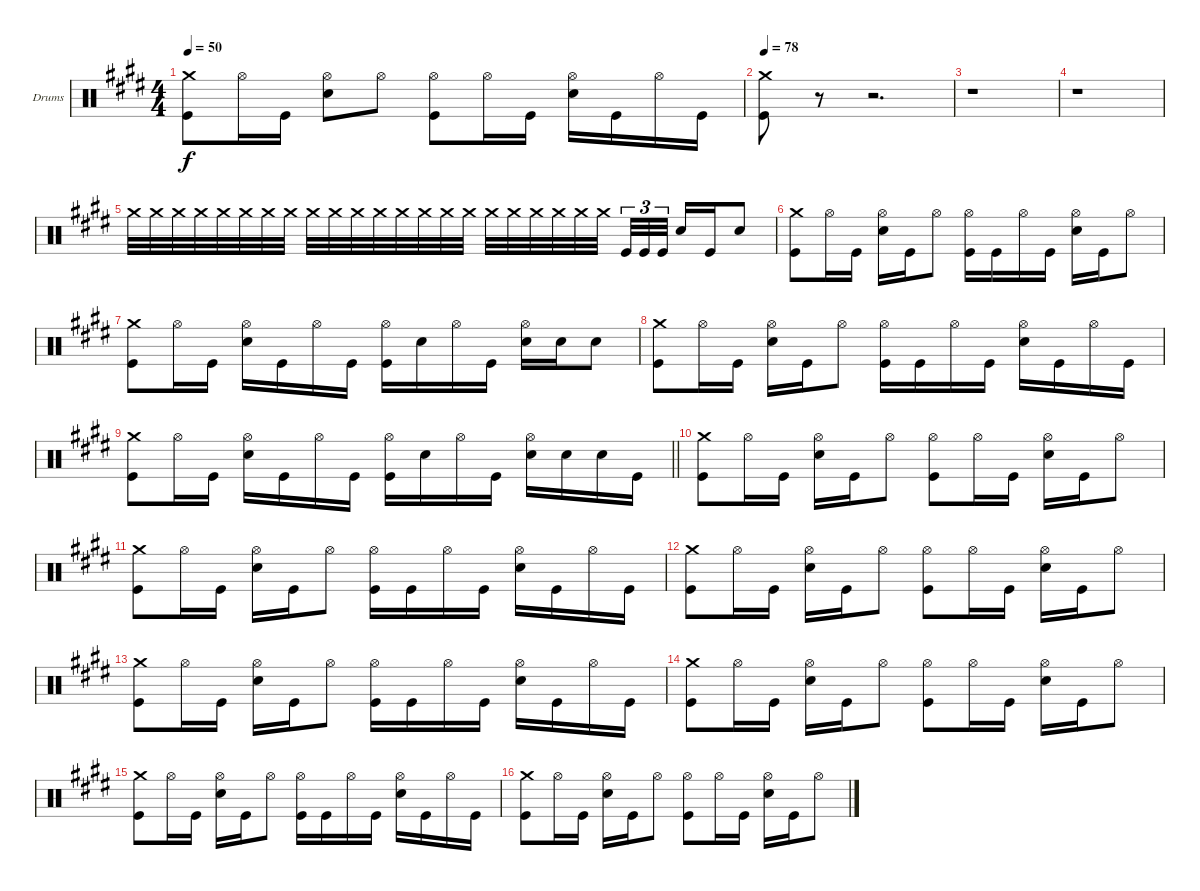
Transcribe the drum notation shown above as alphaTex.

\bracketExtendMode groupsimilarinstruments
\firstSystemTrackNameOrientation horizontal
\otherSystemsTrackNameOrientation horizontal
\track ("Drumkit" "Drums") {instrument percussion}
\staff {score}
\articulation defaults
\ts (4 4)
\tempo 50
\clef neutral
\ks c#minor
("Crash medium (hit)" "Kick (hit)").8{dy f} "Hi-Hat (open)".16 "Kick (hit)".16 ("Hi-Hat (open)" "Snare (hit) 2").8 "Hi-Hat (open)".8 ("Hi-Hat (open)" "Kick (hit)").8 "Hi-Hat (open)".16 "Kick (hit)".16 ("Hi-Hat (open)" "Snare (hit) 2").16 "Kick (hit)".16 "Hi-Hat (open)".16 "Kick (hit)".16 |
\tempo 78
("Crash medium (hit)" "Kick (hit)").8 r.8 r.2{d} |
r.1 |
r.1 |
"Crash medium (hit)".32 "Crash medium (hit)".32 "Crash medium (hit)".32 "Crash medium (hit)".32 "Crash medium (hit)".32 "Crash medium (hit)".32 "Crash medium (hit)".32 "Crash medium (hit)".32 "Crash medium (hit)".32 "Crash medium (hit)".32 "Crash medium (hit)".32 "Crash medium (hit)".32 "Crash medium (hit)".32 "Crash medium (hit)".32 "Crash medium (hit)".32 "Crash medium (hit)".32 "Crash medium (hit)".32 "Crash medium (hit)".32 "Crash medium (hit)".32 "Crash medium (hit)".32 "Crash medium (hit)".32 "Crash medium (hit)".32 "Kick (hit)".32{tu (3 2)} "Kick (hit)".32{tu (3 2)} "Kick (hit)".32{tu (3 2)} "Snare (hit) 2".16 "Kick (hit)".16 "Snare (hit) 2".8 |
("Crash medium (hit)" "Kick (hit)").8 "Hi-Hat (open)".16 "Kick (hit)".16 ("Hi-Hat (open)" "Snare (hit) 2").16 "Kick (hit)".16 "Hi-Hat (open)".8 ("Hi-Hat (open)" "Kick (hit)").16 "Kick (hit)".16 "Hi-Hat (open)".16 "Kick (hit)".16 ("Hi-Hat (open)" "Snare (hit) 2").16 "Kick (hit)".16 "Hi-Hat (open)".8 |
("Crash medium (hit)" "Kick (hit)").8 "Hi-Hat (open)".16 "Kick (hit)".16 ("Hi-Hat (open)" "Snare (hit) 2").16 "Kick (hit)".16 "Hi-Hat (open)".16 "Kick (hit)".16 ("Hi-Hat (open)" "Kick (hit)").16 "Snare (hit) 2".16 "Hi-Hat (open)".16 "Kick (hit)".16 ("Hi-Hat (open)" "Snare (hit) 2").16 "Snare (hit) 2".16 "Snare (hit) 2".8 |
("Crash medium (hit)" "Kick (hit)").8 "Hi-Hat (open)".16 "Kick (hit)".16 ("Hi-Hat (open)" "Snare (hit) 2").16 "Kick (hit)".16 "Hi-Hat (open)".8 ("Hi-Hat (open)" "Kick (hit)").16 "Kick (hit)".16 "Hi-Hat (open)".16 "Kick (hit)".16 ("Hi-Hat (open)" "Snare (hit) 2").16 "Kick (hit)".16 "Hi-Hat (open)".16 "Kick (hit)".16 |
\barLineRight lightlight
("Crash medium (hit)" "Kick (hit)").8 "Hi-Hat (open)".16 "Kick (hit)".16 ("Hi-Hat (open)" "Snare (hit) 2").16 "Kick (hit)".16 "Hi-Hat (open)".16 "Kick (hit)".16 ("Hi-Hat (open)" "Kick (hit)").16 "Snare (hit) 2".16 "Hi-Hat (open)".16 "Kick (hit)".16 ("Hi-Hat (open)" "Snare (hit) 2").16 "Snare (hit) 2".16 "Snare (hit) 2".16 "Kick (hit)".16 |
("Crash medium (hit)" "Kick (hit)").8 "Hi-Hat (open)".16 "Kick (hit)".16 ("Hi-Hat (open)" "Snare (hit) 2").16 "Kick (hit)".16 "Hi-Hat (open)".8 ("Hi-Hat (open)" "Kick (hit)").8 "Hi-Hat (open)".16 "Kick (hit)".16 ("Hi-Hat (open)" "Snare (hit) 2").16 "Kick (hit)".16 "Hi-Hat (open)".8 |
("Crash medium (hit)" "Kick (hit)").8 "Hi-Hat (open)".16 "Kick (hit)".16 ("Hi-Hat (open)" "Snare (hit) 2").16 "Kick (hit)".16 "Hi-Hat (open)".8 ("Hi-Hat (open)" "Kick (hit)").16 "Kick (hit)".16 "Hi-Hat (open)".16 "Kick (hit)".16 ("Hi-Hat (open)" "Snare (hit) 2").16 "Kick (hit)".16 "Hi-Hat (open)".16 "Kick (hit)".16 |
("Crash medium (hit)" "Kick (hit)").8 "Hi-Hat (open)".16 "Kick (hit)".16 ("Hi-Hat (open)" "Snare (hit) 2").16 "Kick (hit)".16 "Hi-Hat (open)".8 ("Hi-Hat (open)" "Kick (hit)").8 "Hi-Hat (open)".16 "Kick (hit)".16 ("Hi-Hat (open)" "Snare (hit) 2").16 "Kick (hit)".16 "Hi-Hat (open)".8 |
("Crash medium (hit)" "Kick (hit)").8 "Hi-Hat (open)".16 "Kick (hit)".16 ("Hi-Hat (open)" "Snare (hit) 2").16 "Kick (hit)".16 "Hi-Hat (open)".8 ("Hi-Hat (open)" "Kick (hit)").16 "Kick (hit)".16 "Hi-Hat (open)".16 "Kick (hit)".16 ("Hi-Hat (open)" "Snare (hit) 2").16 "Kick (hit)".16 "Hi-Hat (open)".16 "Kick (hit)".16 |
("Crash medium (hit)" "Kick (hit)").8 "Hi-Hat (open)".16 "Kick (hit)".16 ("Hi-Hat (open)" "Snare (hit) 2").16 "Kick (hit)".16 "Hi-Hat (open)".8 ("Hi-Hat (open)" "Kick (hit)").8 "Hi-Hat (open)".16 "Kick (hit)".16 ("Hi-Hat (open)" "Snare (hit) 2").16 "Kick (hit)".16 "Hi-Hat (open)".8 |
("Crash medium (hit)" "Kick (hit)").8 "Hi-Hat (open)".16 "Kick (hit)".16 ("Hi-Hat (open)" "Snare (hit) 2").16 "Kick (hit)".16 "Hi-Hat (open)".8 ("Hi-Hat (open)" "Kick (hit)").16 "Kick (hit)".16 "Hi-Hat (open)".16 "Kick (hit)".16 ("Hi-Hat (open)" "Snare (hit) 2").16 "Kick (hit)".16 "Hi-Hat (open)".16 "Kick (hit)".16 |
("Crash medium (hit)" "Kick (hit)").8 "Hi-Hat (open)".16 "Kick (hit)".16 ("Hi-Hat (open)" "Snare (hit) 2").16 "Kick (hit)".16 "Hi-Hat (open)".8 ("Hi-Hat (open)" "Kick (hit)").8 "Hi-Hat (open)".16 "Kick (hit)".16 ("Hi-Hat (open)" "Snare (hit) 2").16 "Kick (hit)".16 "Hi-Hat (open)".8
